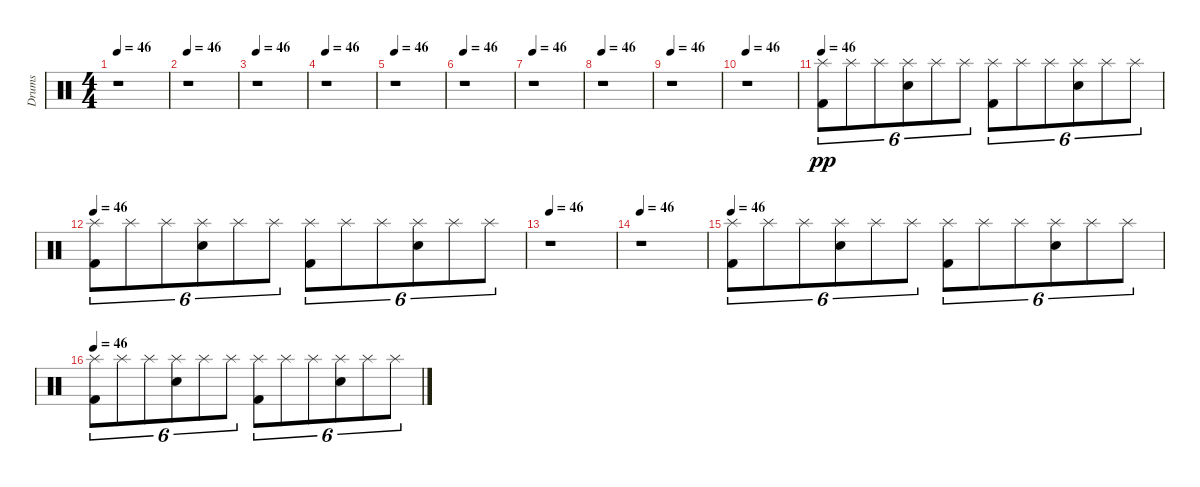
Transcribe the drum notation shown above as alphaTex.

\track ("Drums" "Drums") {instrument percussion}
\staff {score}
\articulation defaults
\ts (4 4)
\tempo 46
\clef neutral
\ks c
r.1{dy pp} |
\tempo 46
r.1 |
\tempo 46
r.1 |
\tempo 46
r.1 |
\tempo 46
r.1 |
\tempo 46
r.1 |
\tempo 46
r.1 |
\tempo 46
r.1 |
\tempo 46
r.1 |
\tempo 46
r.1 |
\tempo 46
("Splash (hit)" "Kick (hit) 2").8{tu (6 4)} "Splash (hit)".8{tu (6 4)} "Splash (hit)".8{tu (6 4)} ("Splash (hit)" "Snare (hit) 2").8{tu (6 4)} "Splash (hit)".8{tu (6 4)} "Splash (hit)".8{tu (6 4)} ("Splash (hit)" "Kick (hit) 2").8{tu (6 4)} "Splash (hit)".8{tu (6 4)} "Splash (hit)".8{tu (6 4)} ("Splash (hit)" "Snare (hit) 2").8{tu (6 4)} "Splash (hit)".8{tu (6 4)} "Splash (hit)".8{tu (6 4)} |
\tempo 46
("Splash (hit)" "Kick (hit) 2").8{tu (6 4)} "Splash (hit)".8{tu (6 4)} "Splash (hit)".8{tu (6 4)} ("Splash (hit)" "Snare (hit) 2").8{tu (6 4)} "Splash (hit)".8{tu (6 4)} "Splash (hit)".8{tu (6 4)} ("Splash (hit)" "Kick (hit) 2").8{tu (6 4)} "Splash (hit)".8{tu (6 4)} "Splash (hit)".8{tu (6 4)} ("Splash (hit)" "Snare (hit) 2").8{tu (6 4)} "Splash (hit)".8{tu (6 4)} "Splash (hit)".8{tu (6 4)} |
\tempo 46
r.1 |
\tempo 46
r.1 |
\tempo 46
("Splash (hit)" "Kick (hit) 2").8{tu (6 4)} "Splash (hit)".8{tu (6 4)} "Splash (hit)".8{tu (6 4)} ("Splash (hit)" "Snare (hit) 2").8{tu (6 4)} "Splash (hit)".8{tu (6 4)} "Splash (hit)".8{tu (6 4)} ("Splash (hit)" "Kick (hit) 2").8{tu (6 4)} "Splash (hit)".8{tu (6 4)} "Splash (hit)".8{tu (6 4)} ("Splash (hit)" "Snare (hit) 2").8{tu (6 4)} "Splash (hit)".8{tu (6 4)} "Splash (hit)".8{tu (6 4)} |
\tempo 46
("Splash (hit)" "Kick (hit) 2").8{tu (6 4)} "Splash (hit)".8{tu (6 4)} "Splash (hit)".8{tu (6 4)} ("Splash (hit)" "Snare (hit) 2").8{tu (6 4)} "Splash (hit)".8{tu (6 4)} "Splash (hit)".8{tu (6 4)} ("Splash (hit)" "Kick (hit) 2").8{tu (6 4)} "Splash (hit)".8{tu (6 4)} "Splash (hit)".8{tu (6 4)} ("Splash (hit)" "Snare (hit) 2").8{tu (6 4)} "Splash (hit)".8{tu (6 4)} "Splash (hit)".8{tu (6 4)}
